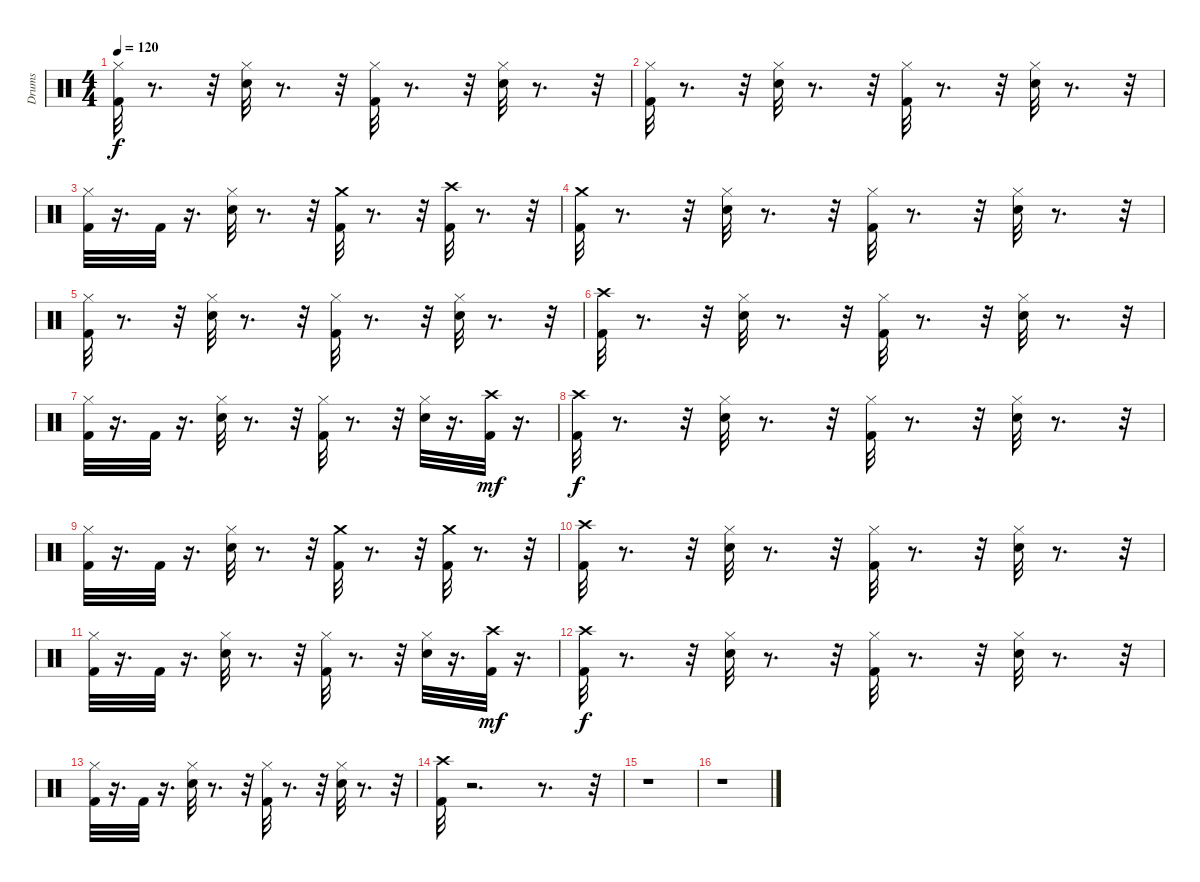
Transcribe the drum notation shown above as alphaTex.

\track ("Drums" "Drums") {instrument percussion}
\staff {score}
\articulation defaults
\ts (4 4)
\tempo 120
\clef neutral
\ks c
("Kick (hit) 2" "Hi-Hat (closed)").32{dy f} r.8{d} r.32 ("Snare (hit) 2" "Hi-Hat (closed)").32 r.8{d} r.32 ("Kick (hit) 2" "Hi-Hat (closed)").32 r.8{d} r.32 ("Snare (hit) 2" "Hi-Hat (closed)").32 r.8{d} r.32 |
("Kick (hit) 2" "Hi-Hat (closed)").32 r.8{d} r.32 ("Snare (hit) 2" "Hi-Hat (closed)").32 r.8{d} r.32 ("Kick (hit) 2" "Hi-Hat (closed)").32 r.8{d} r.32 ("Snare (hit) 2" "Hi-Hat (closed)").32 r.8{d} r.32 |
("Kick (hit) 2" "Hi-Hat (closed)").32 r.16{d} "Kick (hit) 2".32 r.16{d} ("Snare (hit) 2" "Hi-Hat (closed)").32 r.8{d} r.32 ("Kick (hit) 2" "Crash medium (hit)").32 r.8{d} r.32 ("Kick (hit) 2" "Crash high (hit)").32 r.8{d} r.32 |
("Kick (hit) 2" "Crash medium (hit)").32 r.8{d} r.32 ("Snare (hit) 2" "Hi-Hat (closed)").32 r.8{d} r.32 ("Kick (hit) 2" "Hi-Hat (closed)").32 r.8{d} r.32 ("Snare (hit) 2" "Hi-Hat (closed)").32 r.8{d} r.32 |
("Kick (hit) 2" "Hi-Hat (closed)").32 r.8{d} r.32 ("Snare (hit) 2" "Hi-Hat (closed)").32 r.8{d} r.32 ("Kick (hit) 2" "Hi-Hat (closed)").32 r.8{d} r.32 ("Snare (hit) 2" "Hi-Hat (closed)").32 r.8{d} r.32 |
("Kick (hit) 2" "Crash high (hit)").32 r.8{d} r.32 ("Snare (hit) 2" "Hi-Hat (closed)").32 r.8{d} r.32 ("Kick (hit) 2" "Hi-Hat (closed)").32 r.8{d} r.32 ("Snare (hit) 2" "Hi-Hat (closed)").32 r.8{d} r.32 |
("Kick (hit) 2" "Hi-Hat (closed)").32 r.16{d} "Kick (hit) 2".32 r.16{d} ("Snare (hit) 2" "Hi-Hat (closed)").32 r.8{d} r.32 ("Kick (hit) 2" "Hi-Hat (closed)").32 r.8{d} r.32 ("Snare (hit) 2" "Hi-Hat (closed)").32 r.16{d} ("Kick (hit) 2" "Crash high (hit)").32{dy mf} r.16{d} |
("Kick (hit) 2" "Crash high (hit)").32{dy f} r.8{d} r.32 ("Snare (hit) 2" "Hi-Hat (closed)").32 r.8{d} r.32 ("Kick (hit) 2" "Hi-Hat (closed)").32 r.8{d} r.32 ("Snare (hit) 2" "Hi-Hat (closed)").32 r.8{d} r.32 |
("Kick (hit) 2" "Hi-Hat (closed)").32 r.16{d} "Kick (hit) 2".32 r.16{d} ("Snare (hit) 2" "Hi-Hat (closed)").32 r.8{d} r.32 ("Kick (hit) 2" "Crash medium (hit)").32 r.8{d} r.32 ("Kick (hit) 2" "Crash medium (hit)").32 r.8{d} r.32 |
("Kick (hit) 2" "Crash high (hit)").32 r.8{d} r.32 ("Snare (hit) 2" "Hi-Hat (closed)").32 r.8{d} r.32 ("Kick (hit) 2" "Hi-Hat (closed)").32 r.8{d} r.32 ("Snare (hit) 2" "Hi-Hat (closed)").32 r.8{d} r.32 |
("Kick (hit) 2" "Hi-Hat (closed)").32 r.16{d} "Kick (hit) 2".32 r.16{d} ("Snare (hit) 2" "Hi-Hat (closed)").32 r.8{d} r.32 ("Kick (hit) 2" "Hi-Hat (closed)").32 r.8{d} r.32 ("Snare (hit) 2" "Hi-Hat (closed)").32 r.16{d} ("Kick (hit) 2" "Crash high (hit)").32{dy mf} r.16{d} |
("Kick (hit) 2" "Crash high (hit)").32{dy f} r.8{d} r.32 ("Snare (hit) 2" "Hi-Hat (closed)").32 r.8{d} r.32 ("Kick (hit) 2" "Hi-Hat (closed)").32 r.8{d} r.32 ("Snare (hit) 2" "Hi-Hat (closed)").32 r.8{d} r.32 |
("Kick (hit) 2" "Hi-Hat (closed)").32 r.16{d} "Kick (hit) 2".32 r.16{d} ("Snare (hit) 2" "Hi-Hat (closed)").32 r.8{d} r.32 ("Kick (hit) 2" "Hi-Hat (closed)").32 r.8{d} r.32 ("Snare (hit) 2" "Hi-Hat (closed)").32 r.8{d} r.32 |
("Kick (hit) 2" "Crash high (hit)").32 r.2{d} r.8{d} r.32 |
r.1 |
r.1
